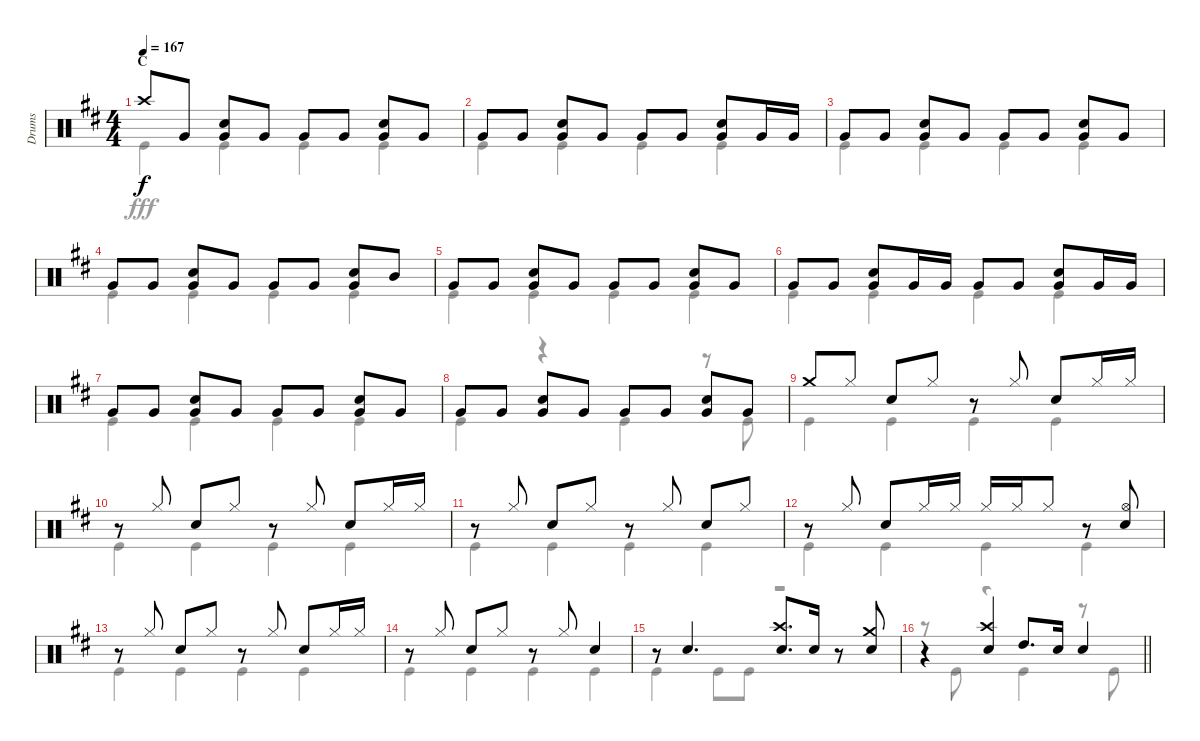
\track ("Drums" "Drums") {instrument percussion}
\staff {score}
\articulation defaults
\voice
\ts (4 4)
\section ("" "C")
\tempo 167
\clef neutral
\ks d "Crash high (hit)".8{dy f} "Very Low Tom (hit)".8
("Snare (hit) 2" "Very Low Tom (hit)").8 "Very Low Tom (hit)".8 "Very Low Tom (hit)".8 "Very Low Tom (hit)".8 ("Snare (hit) 2" "Very Low Tom (hit)").8 "Very Low Tom (hit)".8 |
"Very Low Tom (hit)".8 "Very Low Tom (hit)".8 ("Snare (hit) 2" "Very Low Tom (hit)").8 "Very Low Tom (hit)".8 "Very Low Tom (hit)".8 "Very Low Tom (hit)".8 ("Snare (hit) 2" "Very Low Tom (hit)").8 "Very Low Tom (hit)".16 "Very Low Tom (hit)".16 |
"Very Low Tom (hit)".8 "Very Low Tom (hit)".8 ("Snare (hit) 2" "Very Low Tom (hit)").8 "Very Low Tom (hit)".8 "Very Low Tom (hit)".8 "Very Low Tom (hit)".8 ("Snare (hit) 2" "Very Low Tom (hit)").8 "Very Low Tom (hit)".8 |
"Very Low Tom (hit)".8 "Very Low Tom (hit)".8 ("Snare (hit) 2" "Very Low Tom (hit)").8 "Very Low Tom (hit)".8 "Very Low Tom (hit)".8 "Very Low Tom (hit)".8 ("Snare (hit) 2" "Very Low Tom (hit)").8 "Mid Tom (hit)".8 |
"Very Low Tom (hit)".8 "Very Low Tom (hit)".8 ("Snare (hit) 2" "Very Low Tom (hit)").8 "Very Low Tom (hit)".8 "Very Low Tom (hit)".8 "Very Low Tom (hit)".8 ("Snare (hit) 2" "Very Low Tom (hit)").8 "Very Low Tom (hit)".8 |
"Very Low Tom (hit)".8 "Very Low Tom (hit)".8 ("Snare (hit) 2" "Very Low Tom (hit)").8 "Very Low Tom (hit)".16 "Very Low Tom (hit)".16 "Very Low Tom (hit)".8 "Very Low Tom (hit)".8 ("Snare (hit) 2" "Very Low Tom (hit)").8 "Very Low Tom (hit)".16 "Very Low Tom (hit)".16 |
"Very Low Tom (hit)".8 "Very Low Tom (hit)".8 ("Snare (hit) 2" "Very Low Tom (hit)").8 "Very Low Tom (hit)".8 "Very Low Tom (hit)".8 "Very Low Tom (hit)".8 ("Snare (hit) 2" "Very Low Tom (hit)").8 "Very Low Tom (hit)".8 |
"Very Low Tom (hit)".8 "Very Low Tom (hit)".8 ("Snare (hit) 2" "Very Low Tom (hit)").8 "Very Low Tom (hit)".8 "Very Low Tom (hit)".8 "Very Low Tom (hit)".8 ("Snare (hit) 2" "Very Low Tom (hit)").8 "Very Low Tom (hit)".8 |
"Crash medium (hit)".8 "Hi-Hat (closed)".8 "Snare (hit) 2".8 "Hi-Hat (closed)".8 r.8 "Hi-Hat (closed)".8 "Snare (hit) 2".8 "Hi-Hat (closed)".16 "Hi-Hat (closed)".16 |
r.8 "Hi-Hat (closed)".8 "Snare (hit) 2".8 "Hi-Hat (closed)".8 r.8 "Hi-Hat (closed)".8 "Snare (hit) 2".8 "Hi-Hat (closed)".16 "Hi-Hat (closed)".16 |
r.8 "Hi-Hat (closed)".8 "Snare (hit) 2".8 "Hi-Hat (closed)".8 r.8 "Hi-Hat (closed)".8 "Snare (hit) 2".8 "Hi-Hat (closed)".8 |
r.8 "Hi-Hat (closed)".8 "Snare (hit) 2".8 "Hi-Hat (closed)".16 "Hi-Hat (closed)".16 "Hi-Hat (closed)".16 "Hi-Hat (closed)".16 "Hi-Hat (closed)".8 r.8 ("Hi-Hat (open)" "Snare (hit) 2").8 |
r.8 "Hi-Hat (closed)".8 "Snare (hit) 2".8 "Hi-Hat (closed)".8 r.8 "Hi-Hat (closed)".8 "Snare (hit) 2".8 "Hi-Hat (closed)".16 "Hi-Hat (closed)".16 |
r.8 "Hi-Hat (closed)".8 "Snare (hit) 2".8 "Hi-Hat (closed)".8 r.8 "Hi-Hat (closed)".8 "Snare (hit) 2".4 |
r.8 "Snare (hit) 2".4{d} ("Crash high (hit)" "Snare (hit) 2").8{d} "Snare (hit) 2".16 r.8 ("Crash medium (hit)" "Snare (hit) 2").8 |
\barLineRight lightlight
r.4 ("Crash high (hit)" "Snare (hit) 2").4 "High Tom (hit)".8{d} "Snare (hit) 2".16 "Snare (hit) 2".4
\voice
\clef neutral
\ottava regular
\simile none
\ks d "Kick (hit)".4{dy fff} "Kick (hit)".4 "Kick (hit)".4 "Kick (hit)".4
|
"Kick (hit)".4 "Kick (hit)".4 "Kick (hit)".4 "Kick (hit)".4 |
"Kick (hit)".4 "Kick (hit)".4 "Kick (hit)".4 "Kick (hit)".4 |
"Kick (hit)".4 "Kick (hit)".4 "Kick (hit)".4 "Kick (hit)".4 |
"Kick (hit)".4 "Kick (hit)".4 "Kick (hit)".4 "Kick (hit)".4 |
"Kick (hit)".4 "Kick (hit)".4 "Kick (hit)".4 "Kick (hit)".4 |
"Kick (hit)".4 "Kick (hit)".4 "Kick (hit)".4 "Kick (hit)".4 |
"Kick (hit)".4 r.4 "Kick (hit)".4 r.8 "Kick (hit)".8 |
"Kick (hit)".4 "Kick (hit)".4 "Kick (hit)".4 "Kick (hit)".4 |
"Kick (hit)".4 "Kick (hit)".4 "Kick (hit)".4 "Kick (hit)".4 |
"Kick (hit)".4 "Kick (hit)".4 "Kick (hit)".4 "Kick (hit)".4 |
"Kick (hit)".4 "Kick (hit)".4 "Kick (hit)".4 "Kick (hit)".4 |
"Kick (hit)".4 "Kick (hit)".4 "Kick (hit)".4 "Kick (hit)".4 |
"Kick (hit)".4 "Kick (hit)".4 "Kick (hit)".4 "Kick (hit)".4 |
"Kick (hit)".4 "Kick (hit)".8 "Kick (hit)".8 r.2 |
\barLineRight lightlight
r.8 "Kick (hit)".8 r.4 "Kick (hit)".4 r.8 "Kick (hit)".8
